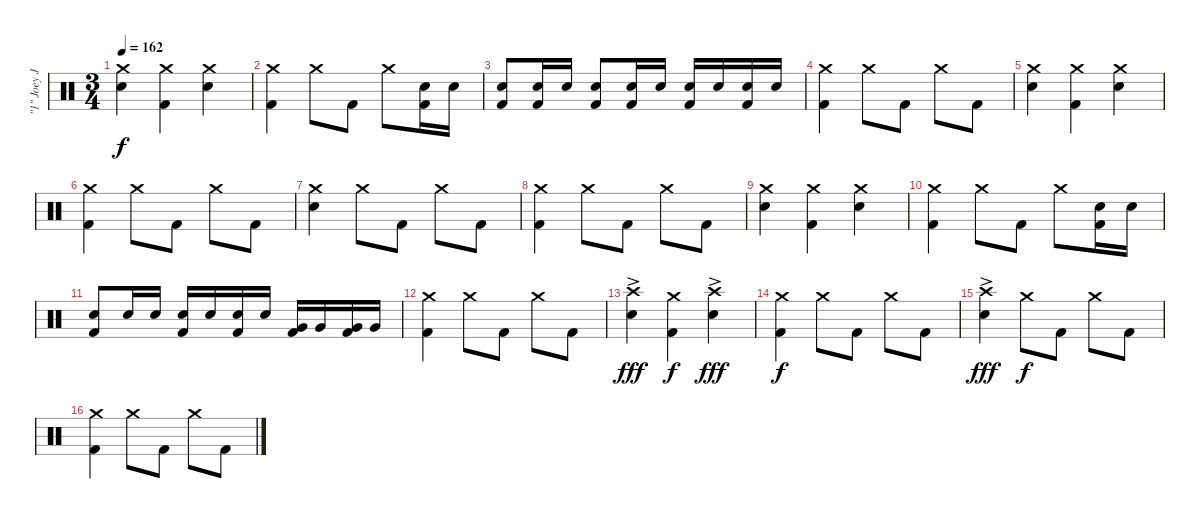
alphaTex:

\track ("\"1\" Joey Jordison (Drums)" "\"1\" Joey J") {instrument percussion}
\staff {score}
\articulation defaults
\ts (3 4)
\tempo 162
\clef neutral
\ks c
("Crash medium (hit)" "Electric Snare (hit)").4{dy f} ("Crash medium (hit)" "Kick (hit) 2").4 ("Crash medium (hit)" "Electric Snare (hit)").4 |
("Crash medium (hit)" "Kick (hit) 2").4 "Crash medium (hit)".8 "Kick (hit) 2".8 "Crash medium (hit)".8 ("Electric Snare (hit)" "Kick (hit) 2").16 "Electric Snare (hit)".16 |
("Electric Snare (hit)" "Kick (hit) 2").8 ("Electric Snare (hit)" "Kick (hit) 2").16 "Electric Snare (hit)".16 ("Electric Snare (hit)" "Kick (hit) 2").8 ("Electric Snare (hit)" "Kick (hit) 2").16 "Electric Snare (hit)".16 ("Electric Snare (hit)" "Kick (hit) 2").16 "Electric Snare (hit)".16 ("Electric Snare (hit)" "Kick (hit) 2").16 "Electric Snare (hit)".16 |
("Crash medium (hit)" "Kick (hit) 2").4 "Crash medium (hit)".8 "Kick (hit) 2".8 "Crash medium (hit)".8 "Kick (hit) 2".8 |
("Crash medium (hit)" "Electric Snare (hit)").4 ("Crash medium (hit)" "Kick (hit) 2").4 ("Crash medium (hit)" "Electric Snare (hit)").4 |
("Crash medium (hit)" "Kick (hit) 2").4 "Crash medium (hit)".8 "Kick (hit) 2".8 "Crash medium (hit)".8 "Kick (hit) 2".8 |
("Crash medium (hit)" "Electric Snare (hit)").4 "Crash medium (hit)".8 "Kick (hit) 2".8 "Crash medium (hit)".8 "Kick (hit) 2".8 |
("Crash medium (hit)" "Kick (hit) 2").4 "Crash medium (hit)".8 "Kick (hit) 2".8 "Crash medium (hit)".8 "Kick (hit) 2".8 |
("Crash medium (hit)" "Electric Snare (hit)").4 ("Crash medium (hit)" "Kick (hit) 2").4 ("Crash medium (hit)" "Electric Snare (hit)").4 |
("Crash medium (hit)" "Kick (hit) 2").4 "Crash medium (hit)".8 "Kick (hit) 2".8 "Crash medium (hit)".8 ("Electric Snare (hit)" "Kick (hit) 2").16 "Electric Snare (hit)".16 |
("Electric Snare (hit)" "Kick (hit) 2").8 "Electric Snare (hit)".16 "Electric Snare (hit)".16 ("Electric Snare (hit)" "Kick (hit) 2").16 "Electric Snare (hit)".16 ("Electric Snare (hit)" "Kick (hit) 2").16 "Electric Snare (hit)".16 ("Very Low Tom (hit)" "Kick (hit) 2").16 "Very Low Tom (hit)".16 ("Very Low Tom (hit)" "Kick (hit) 2").16 "Very Low Tom (hit)".16 |
("Crash medium (hit)" "Kick (hit) 2").4 "Crash medium (hit)".8 "Kick (hit) 2".8 "Crash medium (hit)".8 "Kick (hit) 2".8 |
("Crash high (hit)"{ac} "Electric Snare (hit)").4{dy fff} ("Crash medium (hit)" "Kick (hit) 2").4{dy f} ("Crash high (hit)"{ac} "Electric Snare (hit)").4{dy fff} |
("Crash medium (hit)" "Kick (hit) 2").4{dy f} "Crash medium (hit)".8 "Kick (hit) 2".8 "Crash medium (hit)".8 "Kick (hit) 2".8 |
("Crash high (hit)"{ac} "Electric Snare (hit)").4{dy fff} "Crash medium (hit)".8{dy f} "Kick (hit) 2".8 "Crash medium (hit)".8 "Kick (hit) 2".8 |
("Crash medium (hit)" "Kick (hit) 2").4 "Crash medium (hit)".8 "Kick (hit) 2".8 "Crash medium (hit)".8 "Kick (hit) 2".8
